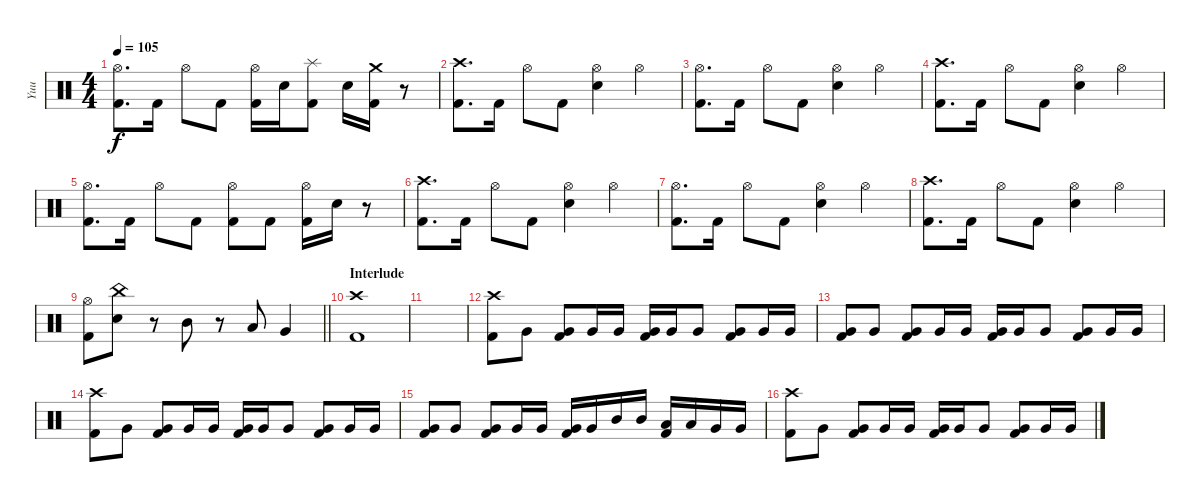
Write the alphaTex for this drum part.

\track ("Yuu" "Yuu") {instrument percussion}
\staff {score}
\articulation defaults
\ts (4 4)
\tempo 105
\clef neutral
\ks c
("Hi-Hat (open)" "Kick (hit) 2").8{d dy f} "Kick (hit) 2".16 "Hi-Hat (open)".8 "Kick (hit) 2".8 ("Hi-Hat (open)" "Kick (hit) 2").16 "Electric Snare (hit)".16 ("Splash (hit)" "Kick (hit) 2").8 "Electric Snare (hit)".16 ("Crash medium (hit)" "Kick (hit) 2").16 r.8 |
("Crash high (hit)" "Kick (hit) 2").8{d} "Kick (hit) 2".16 "Hi-Hat (open)".8 "Kick (hit) 2".8 ("Hi-Hat (open)" "Electric Snare (hit)").4 "Hi-Hat (open)".4 |
("Hi-Hat (open)" "Kick (hit) 2").8{d} "Kick (hit) 2".16 "Hi-Hat (open)".8 "Kick (hit) 2".8 ("Hi-Hat (open)" "Electric Snare (hit)").4 "Hi-Hat (open)".4 |
("Crash high (hit)" "Kick (hit) 2").8{d} "Kick (hit) 2".16 "Hi-Hat (open)".8 "Kick (hit) 2".8 ("Hi-Hat (open)" "Electric Snare (hit)").4 "Hi-Hat (open)".4 |
("Hi-Hat (open)" "Kick (hit) 2").8{d} "Kick (hit) 2".16 "Hi-Hat (open)".8 "Kick (hit) 2".8 ("Hi-Hat (open)" "Kick (hit) 2").8 "Kick (hit) 2".8 ("Hi-Hat (open)" "Kick (hit) 2").16 "Electric Snare (hit)".16 r.8 |
("Crash high (hit)" "Kick (hit) 2").8{d} "Kick (hit) 2".16 "Hi-Hat (open)".8 "Kick (hit) 2".8 ("Hi-Hat (open)" "Electric Snare (hit)").4 "Hi-Hat (open)".4 |
("Hi-Hat (open)" "Kick (hit) 2").8{d} "Kick (hit) 2".16 "Hi-Hat (open)".8 "Kick (hit) 2".8 ("Hi-Hat (open)" "Electric Snare (hit)").4 "Hi-Hat (open)".4 |
("Crash high (hit)" "Kick (hit) 2").8{d} "Kick (hit) 2".16 "Hi-Hat (open)".8 "Kick (hit) 2".8 ("Hi-Hat (open)" "Electric Snare (hit)").4 "Hi-Hat (open)".4 |
\barLineRight lightlight
("Hi-Hat (open)" "Kick (hit) 2").8 ("China (hit)" "Electric Snare (hit)").8 r.8 "Mid Tom (hit)".8 r.8 "Low Tom (hit)".8 "Very Low Tom (hit)".4 |
\section ("" "Interlude")
("Crash high (hit)" "Kick (hit) 2").1 |
|
("Crash high (hit)" "Kick (hit) 2").8 "Very Low Tom (hit)".8 ("Very Low Tom (hit)" "Kick (hit) 2").8 "Very Low Tom (hit)".16 "Very Low Tom (hit)".16 ("Very Low Tom (hit)" "Kick (hit) 2").16 "Very Low Tom (hit)".16 "Very Low Tom (hit)".8 ("Very Low Tom (hit)" "Kick (hit) 2").8 "Very Low Tom (hit)".16 "Very Low Tom (hit)".16 |
("Very Low Tom (hit)" "Kick (hit) 2").8 "Very Low Tom (hit)".8 ("Very Low Tom (hit)" "Kick (hit) 2").8 "Very Low Tom (hit)".16 "Very Low Tom (hit)".16 ("Very Low Tom (hit)" "Kick (hit) 2").16 "Very Low Tom (hit)".16 "Very Low Tom (hit)".8 ("Very Low Tom (hit)" "Kick (hit) 2").8 "Very Low Tom (hit)".16 "Very Low Tom (hit)".16 |
("Crash high (hit)" "Kick (hit) 2").8 "Very Low Tom (hit)".8 ("Very Low Tom (hit)" "Kick (hit) 2").8 "Very Low Tom (hit)".16 "Very Low Tom (hit)".16 ("Very Low Tom (hit)" "Kick (hit) 2").16 "Very Low Tom (hit)".16 "Very Low Tom (hit)".8 ("Very Low Tom (hit)" "Kick (hit) 2").8 "Very Low Tom (hit)".16 "Very Low Tom (hit)".16 |
("Very Low Tom (hit)" "Kick (hit) 2").8 "Very Low Tom (hit)".8 ("Very Low Tom (hit)" "Kick (hit) 2").8 "Very Low Tom (hit)".16 "Very Low Tom (hit)".16 ("Very Low Tom (hit)" "Kick (hit) 2").16 "Very Low Tom (hit)".16 "Mid Tom (hit)".16 "Mid Tom (hit)".16 ("Low Tom (hit)" "Kick (hit) 2").16 "Low Tom (hit)".16 "Very Low Tom (hit)".16 "Very Low Tom (hit)".16 |
("Crash high (hit)" "Kick (hit) 2").8 "Very Low Tom (hit)".8 ("Very Low Tom (hit)" "Kick (hit) 2").8 "Very Low Tom (hit)".16 "Very Low Tom (hit)".16 ("Very Low Tom (hit)" "Kick (hit) 2").16 "Very Low Tom (hit)".16 "Very Low Tom (hit)".8 ("Very Low Tom (hit)" "Kick (hit) 2").8 "Very Low Tom (hit)".16 "Very Low Tom (hit)".16
